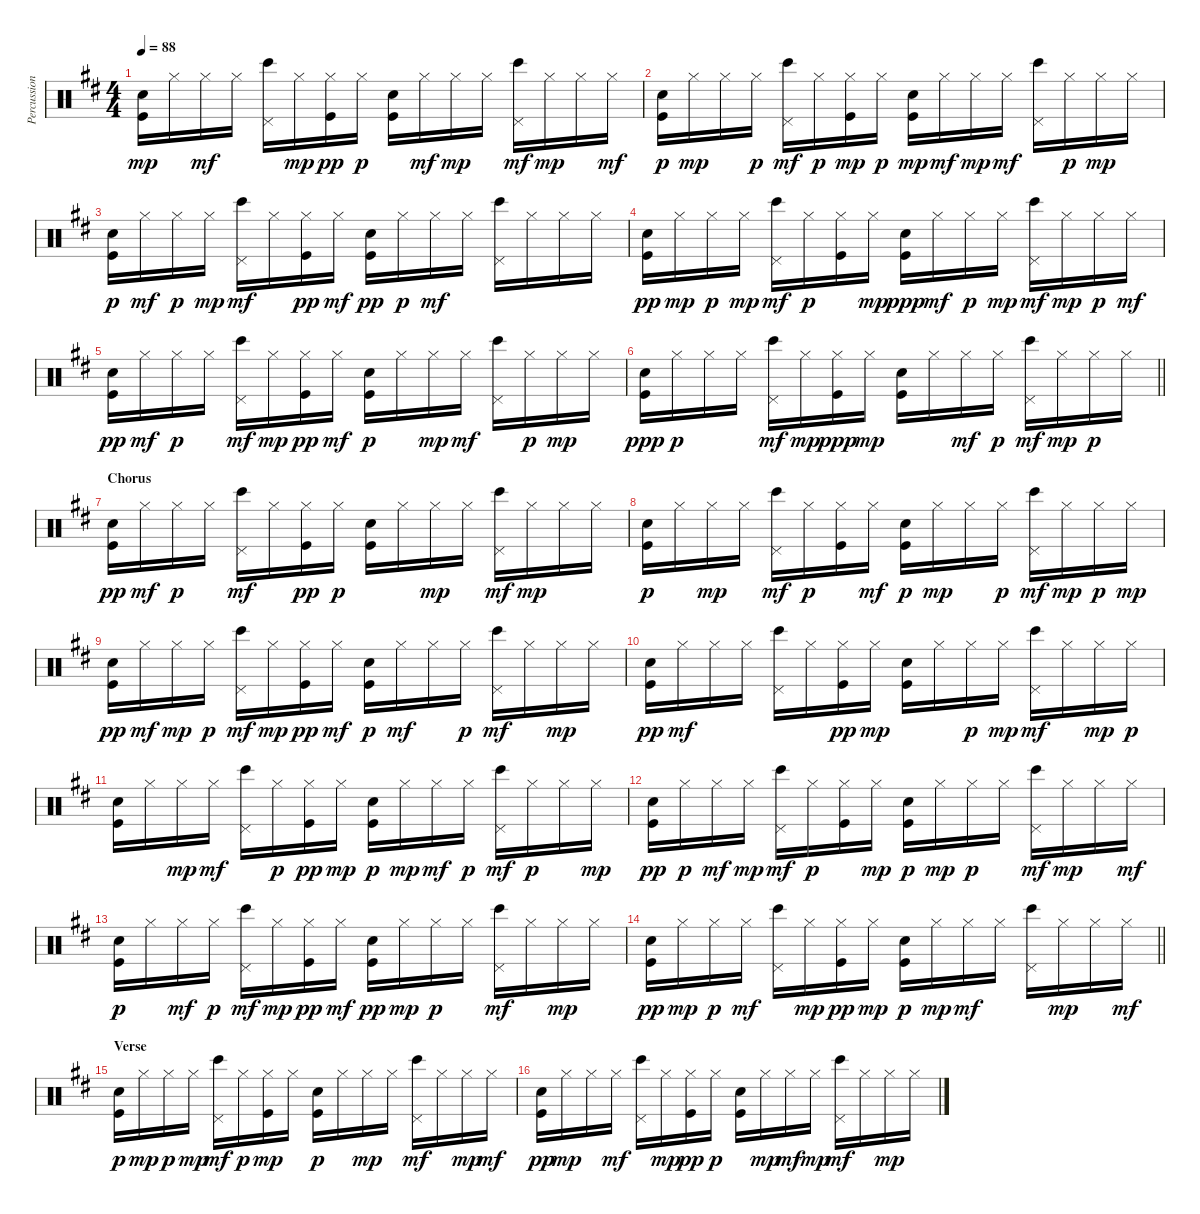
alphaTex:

\track ("Percussion" "Percussion") {instrument percussion}
\staff {score}
\articulation defaults
\ts (4 4)
\tempo 88
\clef neutral
\ks d
("Snare (hit)" "Kick (hit)").16{dy mp} "Hi-Hat (closed)".16 "Hi-Hat (closed)".16{dy mf} "Hi-Hat (closed)".16 ("Bongo High (hit)" "Pedal Hi-Hat (hit)").16 "Hi-Hat (closed)".16{dy mp} ("Hi-Hat (closed)" "Kick (hit)").16{dy pp} "Hi-Hat (closed)".16{dy p} ("Snare (hit)" "Kick (hit)").16 "Hi-Hat (closed)".16{dy mf} "Hi-Hat (closed)".16{dy mp} "Hi-Hat (closed)".16 ("Bongo High (hit)" "Pedal Hi-Hat (hit)").16{dy mf} "Hi-Hat (closed)".16{dy mp} "Hi-Hat (closed)".16 "Hi-Hat (closed)".16{dy mf} |
("Snare (hit)" "Kick (hit)").16{dy p} "Hi-Hat (closed)".16{dy mp} "Hi-Hat (closed)".16 "Hi-Hat (closed)".16{dy p} ("Bongo High (hit)" "Pedal Hi-Hat (hit)").16{dy mf} "Hi-Hat (closed)".16{dy p} ("Hi-Hat (closed)" "Kick (hit)").16{dy mp} "Hi-Hat (closed)".16{dy p} ("Snare (hit)" "Kick (hit)").16{dy mp} "Hi-Hat (closed)".16{dy mf} "Hi-Hat (closed)".16{dy mp} "Hi-Hat (closed)".16{dy mf} ("Bongo High (hit)" "Pedal Hi-Hat (hit)").16 "Hi-Hat (closed)".16{dy p} "Hi-Hat (closed)".16{dy mp} "Hi-Hat (closed)".16 |
("Snare (hit)" "Kick (hit)").16{dy p} "Hi-Hat (closed)".16{dy mf} "Hi-Hat (closed)".16{dy p} "Hi-Hat (closed)".16{dy mp} ("Bongo High (hit)" "Pedal Hi-Hat (hit)").16{dy mf} "Hi-Hat (closed)".16 ("Hi-Hat (closed)" "Kick (hit)").16{dy pp} "Hi-Hat (closed)".16{dy mf} ("Snare (hit)" "Kick (hit)").16{dy pp} "Hi-Hat (closed)".16{dy p} "Hi-Hat (closed)".16{dy mf} "Hi-Hat (closed)".16 ("Bongo High (hit)" "Pedal Hi-Hat (hit)").16 "Hi-Hat (closed)".16 "Hi-Hat (closed)".16 "Hi-Hat (closed)".16 |
("Snare (hit)" "Kick (hit)").16{dy pp} "Hi-Hat (closed)".16{dy mp} "Hi-Hat (closed)".16{dy p} "Hi-Hat (closed)".16{dy mp} ("Bongo High (hit)" "Pedal Hi-Hat (hit)").16{dy mf} "Hi-Hat (closed)".16{dy p} ("Hi-Hat (closed)" "Kick (hit)").16 "Hi-Hat (closed)".16{dy mp} ("Snare (hit)" "Kick (hit)").16{dy ppp} "Hi-Hat (closed)".16{dy mf} "Hi-Hat (closed)".16{dy p} "Hi-Hat (closed)".16{dy mp} ("Bongo High (hit)" "Pedal Hi-Hat (hit)").16{dy mf} "Hi-Hat (closed)".16{dy mp} "Hi-Hat (closed)".16{dy p} "Hi-Hat (closed)".16{dy mf} |
("Snare (hit)" "Kick (hit)").16{dy pp} "Hi-Hat (closed)".16{dy mf} "Hi-Hat (closed)".16{dy p} "Hi-Hat (closed)".16 ("Bongo High (hit)" "Pedal Hi-Hat (hit)").16{dy mf} "Hi-Hat (closed)".16{dy mp} ("Hi-Hat (closed)" "Kick (hit)").16{dy pp} "Hi-Hat (closed)".16{dy mf} ("Snare (hit)" "Kick (hit)").16{dy p} "Hi-Hat (closed)".16 "Hi-Hat (closed)".16{dy mp} "Hi-Hat (closed)".16{dy mf} ("Bongo High (hit)" "Pedal Hi-Hat (hit)").16 "Hi-Hat (closed)".16{dy p} "Hi-Hat (closed)".16{dy mp} "Hi-Hat (closed)".16 |
\barLineRight lightlight
("Snare (hit)" "Kick (hit)").16{dy ppp} "Hi-Hat (closed)".16{dy p} "Hi-Hat (closed)".16 "Hi-Hat (closed)".16 ("Bongo High (hit)" "Pedal Hi-Hat (hit)").16{dy mf} "Hi-Hat (closed)".16{dy mp} ("Hi-Hat (closed)" "Kick (hit)").16{dy ppp} "Hi-Hat (closed)".16{dy mp} ("Snare (hit)" "Kick (hit)").16 "Hi-Hat (closed)".16 "Hi-Hat (closed)".16{dy mf} "Hi-Hat (closed)".16{dy p} ("Bongo High (hit)" "Pedal Hi-Hat (hit)").16{dy mf} "Hi-Hat (closed)".16{dy mp} "Hi-Hat (closed)".16{dy p} "Hi-Hat (closed)".16 |
\section ("" "Chorus")
("Snare (hit)" "Kick (hit)").16{dy pp} "Hi-Hat (closed)".16{dy mf} "Hi-Hat (closed)".16{dy p} "Hi-Hat (closed)".16 ("Bongo High (hit)" "Pedal Hi-Hat (hit)").16{dy mf} "Hi-Hat (closed)".16 ("Hi-Hat (closed)" "Kick (hit)").16{dy pp} "Hi-Hat (closed)".16{dy p} ("Snare (hit)" "Kick (hit)").16 "Hi-Hat (closed)".16 "Hi-Hat (closed)".16{dy mp} "Hi-Hat (closed)".16 ("Bongo High (hit)" "Pedal Hi-Hat (hit)").16{dy mf} "Hi-Hat (closed)".16{dy mp} "Hi-Hat (closed)".16 "Hi-Hat (closed)".16 |
("Snare (hit)" "Kick (hit)").16{dy p} "Hi-Hat (closed)".16 "Hi-Hat (closed)".16{dy mp} "Hi-Hat (closed)".16 ("Bongo High (hit)" "Pedal Hi-Hat (hit)").16{dy mf} "Hi-Hat (closed)".16{dy p} ("Hi-Hat (closed)" "Kick (hit)").16 "Hi-Hat (closed)".16{dy mf} ("Snare (hit)" "Kick (hit)").16{dy p} "Hi-Hat (closed)".16{dy mp} "Hi-Hat (closed)".16 "Hi-Hat (closed)".16{dy p} ("Bongo High (hit)" "Pedal Hi-Hat (hit)").16{dy mf} "Hi-Hat (closed)".16{dy mp} "Hi-Hat (closed)".16{dy p} "Hi-Hat (closed)".16{dy mp} |
("Snare (hit)" "Kick (hit)").16{dy pp} "Hi-Hat (closed)".16{dy mf} "Hi-Hat (closed)".16{dy mp} "Hi-Hat (closed)".16{dy p} ("Bongo High (hit)" "Pedal Hi-Hat (hit)").16{dy mf} "Hi-Hat (closed)".16{dy mp} ("Hi-Hat (closed)" "Kick (hit)").16{dy pp} "Hi-Hat (closed)".16{dy mf} ("Snare (hit)" "Kick (hit)").16{dy p} "Hi-Hat (closed)".16{dy mf} "Hi-Hat (closed)".16 "Hi-Hat (closed)".16{dy p} ("Bongo High (hit)" "Pedal Hi-Hat (hit)").16{dy mf} "Hi-Hat (closed)".16 "Hi-Hat (closed)".16{dy mp} "Hi-Hat (closed)".16 |
("Snare (hit)" "Kick (hit)").16{dy pp} "Hi-Hat (closed)".16{dy mf} "Hi-Hat (closed)".16 "Hi-Hat (closed)".16 ("Bongo High (hit)" "Pedal Hi-Hat (hit)").16 "Hi-Hat (closed)".16 ("Hi-Hat (closed)" "Kick (hit)").16{dy pp} "Hi-Hat (closed)".16{dy mp} ("Snare (hit)" "Kick (hit)").16 "Hi-Hat (closed)".16 "Hi-Hat (closed)".16{dy p} "Hi-Hat (closed)".16{dy mp} ("Bongo High (hit)" "Pedal Hi-Hat (hit)").16{dy mf} "Hi-Hat (closed)".16 "Hi-Hat (closed)".16{dy mp} "Hi-Hat (closed)".16{dy p} |
("Snare (hit)" "Kick (hit)").16 "Hi-Hat (closed)".16 "Hi-Hat (closed)".16{dy mp} "Hi-Hat (closed)".16{dy mf} ("Bongo High (hit)" "Pedal Hi-Hat (hit)").16 "Hi-Hat (closed)".16{dy p} ("Hi-Hat (closed)" "Kick (hit)").16{dy pp} "Hi-Hat (closed)".16{dy mp} ("Snare (hit)" "Kick (hit)").16{dy p} "Hi-Hat (closed)".16{dy mp} "Hi-Hat (closed)".16{dy mf} "Hi-Hat (closed)".16{dy p} ("Bongo High (hit)" "Pedal Hi-Hat (hit)").16{dy mf} "Hi-Hat (closed)".16{dy p} "Hi-Hat (closed)".16 "Hi-Hat (closed)".16{dy mp} |
("Snare (hit)" "Kick (hit)").16{dy pp} "Hi-Hat (closed)".16{dy p} "Hi-Hat (closed)".16{dy mf} "Hi-Hat (closed)".16{dy mp} ("Bongo High (hit)" "Pedal Hi-Hat (hit)").16{dy mf} "Hi-Hat (closed)".16{dy p} ("Hi-Hat (closed)" "Kick (hit)").16 "Hi-Hat (closed)".16{dy mp} ("Snare (hit)" "Kick (hit)").16{dy p} "Hi-Hat (closed)".16{dy mp} "Hi-Hat (closed)".16{dy p} "Hi-Hat (closed)".16 ("Bongo High (hit)" "Pedal Hi-Hat (hit)").16{dy mf} "Hi-Hat (closed)".16{dy mp} "Hi-Hat (closed)".16 "Hi-Hat (closed)".16{dy mf} |
("Snare (hit)" "Kick (hit)").16{dy p} "Hi-Hat (closed)".16 "Hi-Hat (closed)".16{dy mf} "Hi-Hat (closed)".16{dy p} ("Bongo High (hit)" "Pedal Hi-Hat (hit)").16{dy mf} "Hi-Hat (closed)".16{dy mp} ("Hi-Hat (closed)" "Kick (hit)").16{dy pp} "Hi-Hat (closed)".16{dy mf} ("Snare (hit)" "Kick (hit)").16{dy pp} "Hi-Hat (closed)".16{dy mp} "Hi-Hat (closed)".16{dy p} "Hi-Hat (closed)".16 ("Bongo High (hit)" "Pedal Hi-Hat (hit)").16{dy mf} "Hi-Hat (closed)".16 "Hi-Hat (closed)".16{dy mp} "Hi-Hat (closed)".16 |
\barLineRight lightlight
("Snare (hit)" "Kick (hit)").16{dy pp} "Hi-Hat (closed)".16{dy mp} "Hi-Hat (closed)".16{dy p} "Hi-Hat (closed)".16{dy mf} ("Bongo High (hit)" "Pedal Hi-Hat (hit)").16 "Hi-Hat (closed)".16{dy mp} ("Hi-Hat (closed)" "Kick (hit)").16{dy pp} "Hi-Hat (closed)".16{dy mp} ("Snare (hit)" "Kick (hit)").16{dy p} "Hi-Hat (closed)".16{dy mp} "Hi-Hat (closed)".16{dy mf} "Hi-Hat (closed)".16 ("Bongo High (hit)" "Pedal Hi-Hat (hit)").16 "Hi-Hat (closed)".16{dy mp} "Hi-Hat (closed)".16 "Hi-Hat (closed)".16{dy mf} |
\section ("" "Verse")
("Snare (hit)" "Kick (hit)").16{dy p} "Hi-Hat (closed)".16{dy mp} "Hi-Hat (closed)".16{dy p} "Hi-Hat (closed)".16{dy mp} ("Bongo High (hit)" "Pedal Hi-Hat (hit)").16{dy mf} "Hi-Hat (closed)".16{dy p} ("Hi-Hat (closed)" "Kick (hit)").16{dy mp} "Hi-Hat (closed)".16 ("Snare (hit)" "Kick (hit)").16{dy p} "Hi-Hat (closed)".16 "Hi-Hat (closed)".16{dy mp} "Hi-Hat (closed)".16 ("Bongo High (hit)" "Pedal Hi-Hat (hit)").16{dy mf} "Hi-Hat (closed)".16 "Hi-Hat (closed)".16{dy mp} "Hi-Hat (closed)".16{dy mf} |
("Snare (hit)" "Kick (hit)").16{dy pp} "Hi-Hat (closed)".16{dy mp} "Hi-Hat (closed)".16 "Hi-Hat (closed)".16{dy mf} ("Bongo High (hit)" "Pedal Hi-Hat (hit)").16 "Hi-Hat (closed)".16{dy mp} ("Hi-Hat (closed)" "Kick (hit)").16{dy pp} "Hi-Hat (closed)".16{dy p} ("Snare (hit)" "Kick (hit)").16 "Hi-Hat (closed)".16{dy mp} "Hi-Hat (closed)".16{dy mf} "Hi-Hat (closed)".16{dy mp} ("Bongo High (hit)" "Pedal Hi-Hat (hit)").16{dy mf} "Hi-Hat (closed)".16 "Hi-Hat (closed)".16{dy mp} "Hi-Hat (closed)".16
